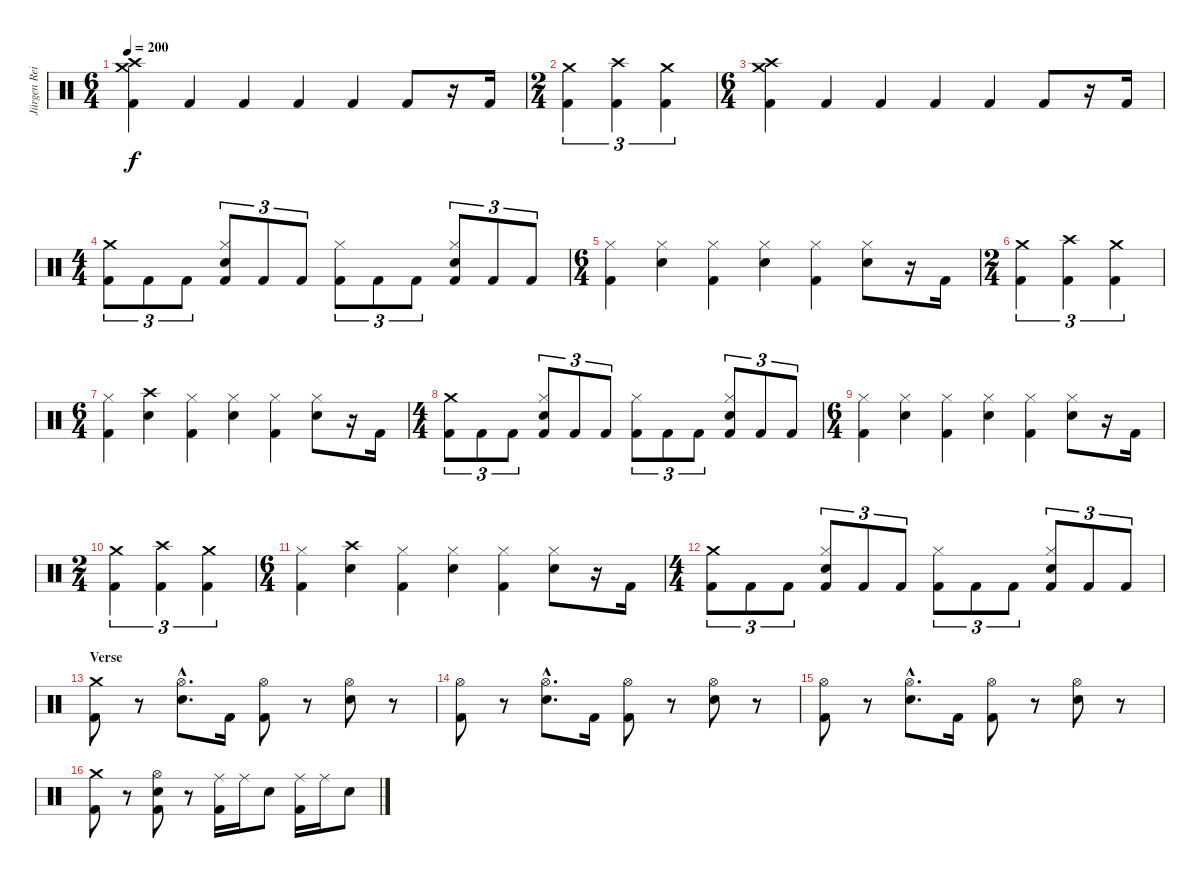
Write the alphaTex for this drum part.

\track ("Jürgen Reil" "Jürgen Rei") {instrument percussion}
\staff {score}
\articulation defaults
\ts (6 4)
\tempo 200
\clef neutral
\ks c
("Crash medium (hit)" "Crash high (hit)" "Kick (hit) 2").4{dy f} "Kick (hit) 2".4 "Kick (hit) 2".4 "Kick (hit) 2".4 "Kick (hit) 2".4 "Kick (hit) 2".8 r.16 "Kick (hit) 2".16 |
\ts (2 4)
("Crash medium (hit)" "Kick (hit) 2").4{tu (3 2)} ("Crash high (hit)" "Kick (hit) 2").4{tu (3 2)} ("Crash medium (hit)" "Kick (hit) 2").4{tu (3 2)} |
\ts (6 4)
("Crash medium (hit)" "Crash high (hit)" "Kick (hit) 2").4 "Kick (hit) 2".4 "Kick (hit) 2".4 "Kick (hit) 2".4 "Kick (hit) 2".4 "Kick (hit) 2".8 r.16 "Kick (hit) 2".16 |
\ts (4 4)
("Crash medium (hit)" "Kick (hit) 2").8{tu (3 2)} "Kick (hit) 2".8{tu (3 2)} "Kick (hit) 2".8{tu (3 2)} ("Hi-Hat (closed)" "Electric Snare (hit)" "Kick (hit) 2").8{tu (3 2)} "Kick (hit) 2".8{tu (3 2)} "Kick (hit) 2".8{tu (3 2)} ("Hi-Hat (closed)" "Kick (hit) 2").8{tu (3 2)} "Kick (hit) 2".8{tu (3 2)} "Kick (hit) 2".8{tu (3 2)} ("Hi-Hat (closed)" "Electric Snare (hit)" "Kick (hit) 2").8{tu (3 2)} "Kick (hit) 2".8{tu (3 2)} "Kick (hit) 2".8{tu (3 2)} |
\ts (6 4)
("Hi-Hat (closed)" "Kick (hit) 2").4 ("Hi-Hat (closed)" "Electric Snare (hit)").4 ("Hi-Hat (closed)" "Kick (hit) 2").4 ("Hi-Hat (closed)" "Electric Snare (hit)").4 ("Hi-Hat (closed)" "Kick (hit) 2").4 ("Hi-Hat (closed)" "Electric Snare (hit)").8 r.16 "Kick (hit) 2".16 |
\ts (2 4)
("Crash medium (hit)" "Kick (hit) 2").4{tu (3 2)} ("Crash high (hit)" "Kick (hit) 2").4{tu (3 2)} ("Crash medium (hit)" "Kick (hit) 2").4{tu (3 2)} |
\ts (6 4)
("Hi-Hat (closed)" "Kick (hit) 2").4 ("Crash high (hit)" "Electric Snare (hit)").4 ("Hi-Hat (closed)" "Kick (hit) 2").4 ("Hi-Hat (closed)" "Electric Snare (hit)").4 ("Hi-Hat (closed)" "Kick (hit) 2").4 ("Hi-Hat (closed)" "Electric Snare (hit)").8 r.16 "Kick (hit) 2".16 |
\ts (4 4)
("Crash medium (hit)" "Kick (hit) 2").8{tu (3 2)} "Kick (hit) 2".8{tu (3 2)} "Kick (hit) 2".8{tu (3 2)} ("Hi-Hat (closed)" "Electric Snare (hit)" "Kick (hit) 2").8{tu (3 2)} "Kick (hit) 2".8{tu (3 2)} "Kick (hit) 2".8{tu (3 2)} ("Hi-Hat (closed)" "Kick (hit) 2").8{tu (3 2)} "Kick (hit) 2".8{tu (3 2)} "Kick (hit) 2".8{tu (3 2)} ("Hi-Hat (closed)" "Electric Snare (hit)" "Kick (hit) 2").8{tu (3 2)} "Kick (hit) 2".8{tu (3 2)} "Kick (hit) 2".8{tu (3 2)} |
\ts (6 4)
("Hi-Hat (closed)" "Kick (hit) 2").4 ("Hi-Hat (closed)" "Electric Snare (hit)").4 ("Hi-Hat (closed)" "Kick (hit) 2").4 ("Hi-Hat (closed)" "Electric Snare (hit)").4 ("Hi-Hat (closed)" "Kick (hit) 2").4 ("Hi-Hat (closed)" "Electric Snare (hit)").8 r.16 "Kick (hit) 2".16 |
\ts (2 4)
("Crash medium (hit)" "Kick (hit) 2").4{tu (3 2)} ("Crash high (hit)" "Kick (hit) 2").4{tu (3 2)} ("Crash medium (hit)" "Kick (hit) 2").4{tu (3 2)} |
\ts (6 4)
("Hi-Hat (closed)" "Kick (hit) 2").4 ("Crash high (hit)" "Electric Snare (hit)").4 ("Hi-Hat (closed)" "Kick (hit) 2").4 ("Hi-Hat (closed)" "Electric Snare (hit)").4 ("Hi-Hat (closed)" "Kick (hit) 2").4 ("Hi-Hat (closed)" "Electric Snare (hit)").8 r.16 "Kick (hit) 2".16 |
\ts (4 4)
("Crash medium (hit)" "Kick (hit) 2").8{tu (3 2)} "Kick (hit) 2".8{tu (3 2)} "Kick (hit) 2".8{tu (3 2)} ("Hi-Hat (closed)" "Electric Snare (hit)" "Kick (hit) 2").8{tu (3 2)} "Kick (hit) 2".8{tu (3 2)} "Kick (hit) 2".8{tu (3 2)} ("Hi-Hat (closed)" "Kick (hit) 2").8{tu (3 2)} "Kick (hit) 2".8{tu (3 2)} "Kick (hit) 2".8{tu (3 2)} ("Hi-Hat (closed)" "Electric Snare (hit)" "Kick (hit) 2").8{tu (3 2)} "Kick (hit) 2".8{tu (3 2)} "Kick (hit) 2".8{tu (3 2)} |
\section ("" "Verse")
("Crash medium (hit)" "Kick (hit) 2").8 r.8 ("Hi-Hat (open)"{hac} "Electric Snare (hit)"{hac}).8{d} "Kick (hit) 2".16 ("Hi-Hat (open)" "Kick (hit) 2").8 r.8 ("Hi-Hat (open)" "Electric Snare (hit)").8 r.8 |
("Hi-Hat (open)" "Kick (hit) 2").8 r.8 ("Hi-Hat (open)"{hac} "Electric Snare (hit)"{hac}).8{d} "Kick (hit) 2".16 ("Hi-Hat (open)" "Kick (hit) 2").8 r.8 ("Hi-Hat (open)" "Electric Snare (hit)").8 r.8 |
("Hi-Hat (open)" "Kick (hit) 2").8 r.8 ("Hi-Hat (open)"{hac} "Electric Snare (hit)"{hac}).8{d} "Kick (hit) 2".16 ("Hi-Hat (open)" "Kick (hit) 2").8 r.8 ("Hi-Hat (open)" "Electric Snare (hit)").8 r.8 |
("Crash medium (hit)" "Kick (hit) 2").8 r.8 ("Hi-Hat (open)" "Electric Snare (hit)" "Kick (hit) 2").8 r.8 ("Ride (middle)" "Kick (hit) 2").16 "Ride (middle)".16 "Electric Snare (hit)".8 ("Ride (middle)" "Kick (hit) 2").16 "Ride (middle)".16 "Electric Snare (hit)".8
